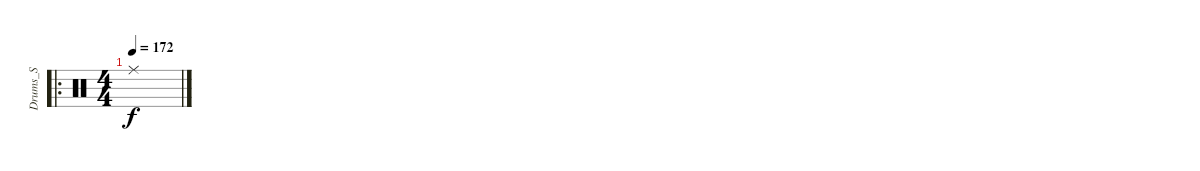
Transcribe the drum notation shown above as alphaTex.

\track ("Drums_S" "Drums_S") {instrument percussion}
\staff {score}
\articulation defaults
\ro
\ts (4 4)
\tempo 172
\clef neutral
\ks c "Ride (middle)".1{dy f}
